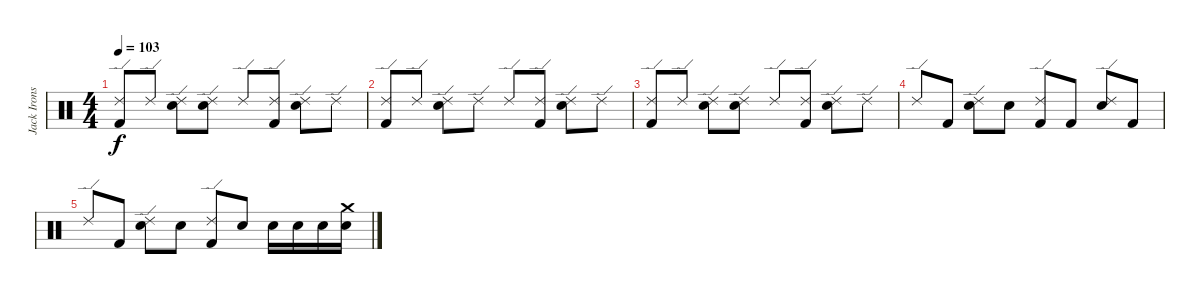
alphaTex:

\track ("Jack Irons" "Jack Irons") {instrument percussion}
\staff {score}
\articulation defaults
\ts (4 4)
\tempo 103
\clef neutral
\ks c
("Ride (edge) 2" "Kick (hit) 2").8{dy f} "Ride (edge) 2".8 ("Ride (edge) 2" "Snare (hit) 2").8 ("Ride (edge) 2" "Snare (hit) 2").8 "Ride (edge) 2".8 ("Ride (edge) 2" "Kick (hit) 2").8 ("Ride (edge) 2" "Snare (hit) 2").8 "Ride (edge) 2".8 |
("Ride (edge) 2" "Kick (hit) 2").8 "Ride (edge) 2".8 ("Ride (edge) 2" "Snare (hit) 2").8 "Ride (edge) 2".8 "Ride (edge) 2".8 ("Ride (edge) 2" "Kick (hit) 2").8 ("Ride (edge) 2" "Snare (hit) 2").8 "Ride (edge) 2".8 |
("Ride (edge) 2" "Kick (hit) 2").8 "Ride (edge) 2".8 ("Ride (edge) 2" "Snare (hit) 2").8 ("Ride (edge) 2" "Snare (hit) 2").8 "Ride (edge) 2".8 ("Ride (edge) 2" "Kick (hit) 2").8 ("Ride (edge) 2" "Snare (hit) 2").8 "Ride (edge) 2".8 |
"Ride (edge) 2".8 "Kick (hit) 2".8 ("Ride (edge) 2" "Snare (hit) 2").8 "Snare (hit) 2".8 ("Ride (edge) 2" "Kick (hit) 2").8 "Kick (hit) 2".8 ("Ride (edge) 2" "Snare (hit) 2").8 "Kick (hit) 2".8 |
"Ride (edge) 2".8 "Kick (hit) 2".8 ("Ride (edge) 2" "Snare (hit) 2").8 "Snare (hit) 2".8 ("Ride (edge) 2" "Kick (hit) 2").8 "Snare (hit) 2".8 "Snare (hit) 2".16{volume 8} "Snare (hit) 2".16 "Snare (hit) 2".16 ("Crash medium (hit)" "Snare (hit) 2").16
